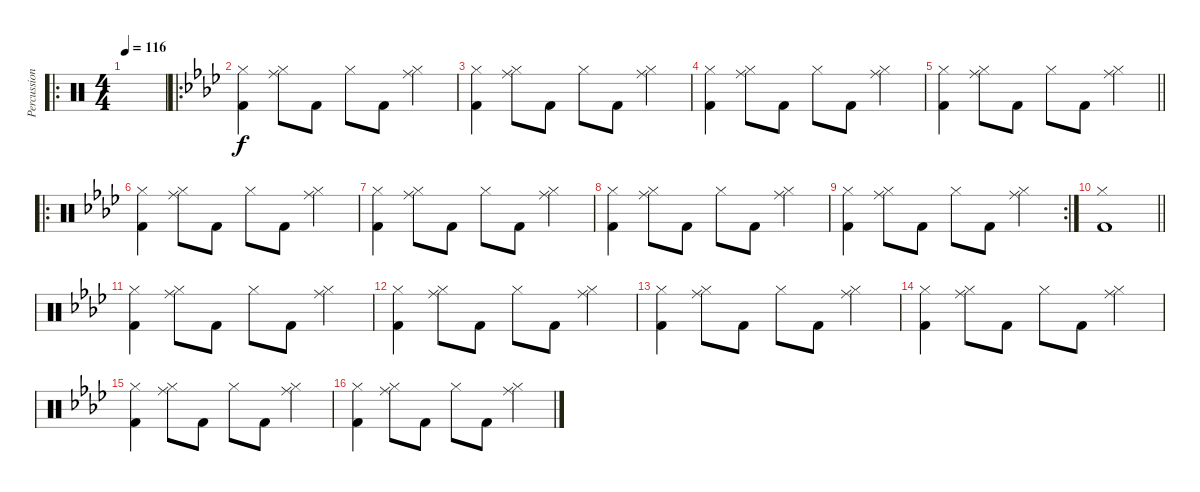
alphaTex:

\track ("Percussions" "Percussion") {instrument percussion}
\staff {score}
\articulation defaults
\ro
\ts (4 4)
\tempo 116
\clef neutral
\ks c
|
\ro
\ks ab
("Kick (hit) 2" "Hi-Hat (closed)").4 ("Ride (middle)" "Hi-Hat (closed)").8 "Kick (hit) 2".8 "Hi-Hat (closed)".8 "Kick (hit) 2".8 ("Ride (middle)" "Hi-Hat (closed)").4 |
("Kick (hit) 2" "Hi-Hat (closed)").4 ("Ride (middle)" "Hi-Hat (closed)").8 "Kick (hit) 2".8 "Hi-Hat (closed)".8 "Kick (hit) 2".8 ("Ride (middle)" "Hi-Hat (closed)").4 |
("Kick (hit) 2" "Hi-Hat (closed)").4 ("Ride (middle)" "Hi-Hat (closed)").8 "Kick (hit) 2".8 "Hi-Hat (closed)".8 "Kick (hit) 2".8 ("Ride (middle)" "Hi-Hat (closed)").4 |
\barLineRight lightlight
("Kick (hit) 2" "Hi-Hat (closed)").4 ("Ride (middle)" "Hi-Hat (closed)").8 "Kick (hit) 2".8 "Hi-Hat (closed)".8 "Kick (hit) 2".8 ("Ride (middle)" "Hi-Hat (closed)").4 |
\ro
("Kick (hit) 2" "Hi-Hat (closed)").4 ("Ride (middle)" "Hi-Hat (closed)").8 "Kick (hit) 2".8 "Hi-Hat (closed)".8 "Kick (hit) 2".8 ("Ride (middle)" "Hi-Hat (closed)").4 |
("Kick (hit) 2" "Hi-Hat (closed)").4 ("Ride (middle)" "Hi-Hat (closed)").8 "Kick (hit) 2".8 "Hi-Hat (closed)".8 "Kick (hit) 2".8 ("Ride (middle)" "Hi-Hat (closed)").4 |
("Kick (hit) 2" "Hi-Hat (closed)").4 ("Ride (middle)" "Hi-Hat (closed)").8 "Kick (hit) 2".8 "Hi-Hat (closed)".8 "Kick (hit) 2".8 ("Ride (middle)" "Hi-Hat (closed)").4 |
\rc 2
("Kick (hit) 2" "Hi-Hat (closed)").4 ("Ride (middle)" "Hi-Hat (closed)").8 "Kick (hit) 2".8 "Hi-Hat (closed)".8 "Kick (hit) 2".8 ("Ride (middle)" "Hi-Hat (closed)").4 |
\barLineRight lightlight
("Kick (hit) 2" "Hi-Hat (closed)").1 |
("Kick (hit) 2" "Hi-Hat (closed)").4 ("Ride (middle)" "Hi-Hat (closed)").8 "Kick (hit) 2".8 "Hi-Hat (closed)".8 "Kick (hit) 2".8 ("Ride (middle)" "Hi-Hat (closed)").4 |
("Kick (hit) 2" "Hi-Hat (closed)").4 ("Ride (middle)" "Hi-Hat (closed)").8 "Kick (hit) 2".8 "Hi-Hat (closed)".8 "Kick (hit) 2".8 ("Ride (middle)" "Hi-Hat (closed)").4 |
("Kick (hit) 2" "Hi-Hat (closed)").4 ("Ride (middle)" "Hi-Hat (closed)").8 "Kick (hit) 2".8 "Hi-Hat (closed)".8 "Kick (hit) 2".8 ("Ride (middle)" "Hi-Hat (closed)").4 |
("Kick (hit) 2" "Hi-Hat (closed)").4 ("Ride (middle)" "Hi-Hat (closed)").8 "Kick (hit) 2".8 "Hi-Hat (closed)".8 "Kick (hit) 2".8 ("Ride (middle)" "Hi-Hat (closed)").4 |
("Kick (hit) 2" "Hi-Hat (closed)").4 ("Ride (middle)" "Hi-Hat (closed)").8 "Kick (hit) 2".8 "Hi-Hat (closed)".8 "Kick (hit) 2".8 ("Ride (middle)" "Hi-Hat (closed)").4 |
("Kick (hit) 2" "Hi-Hat (closed)").4 ("Ride (middle)" "Hi-Hat (closed)").8 "Kick (hit) 2".8 "Hi-Hat (closed)".8 "Kick (hit) 2".8 ("Ride (middle)" "Hi-Hat (closed)").4
